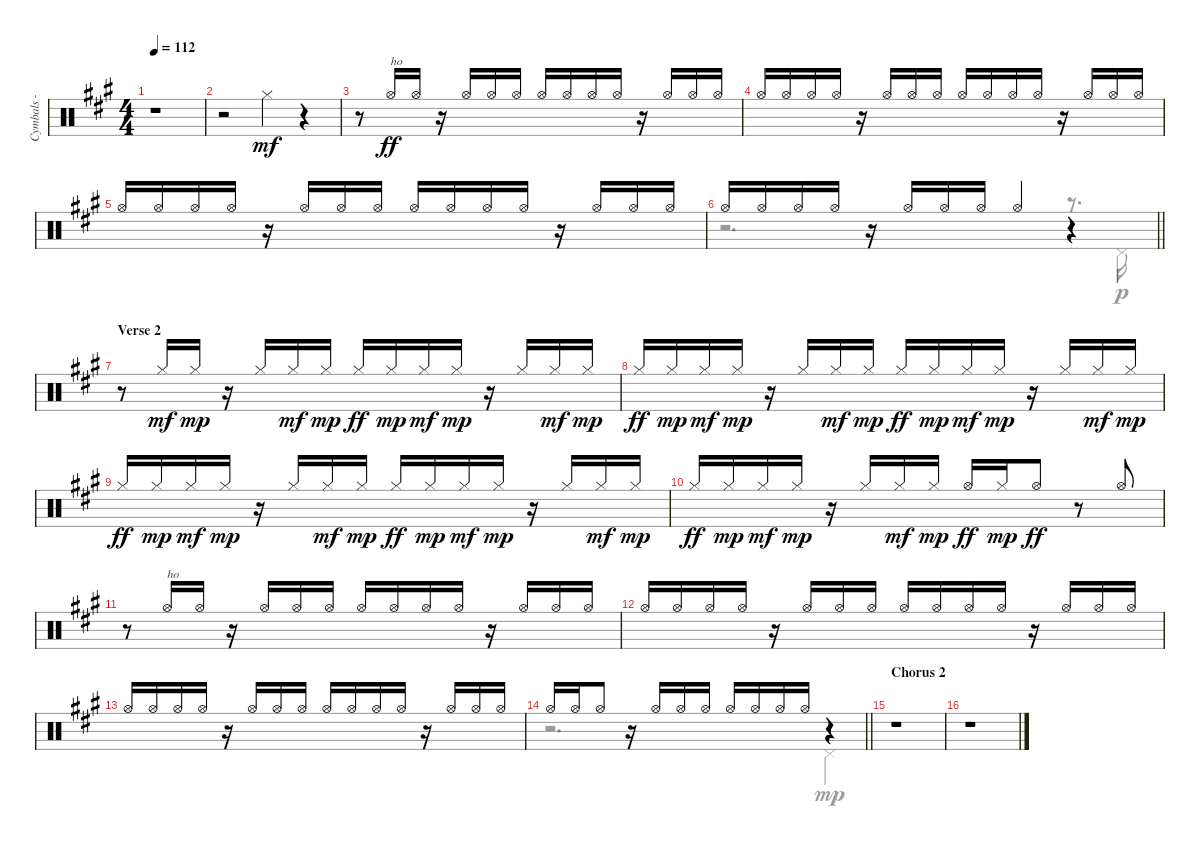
\track ("Cymbals - hi-hat" "Cymbals - ") {instrument percussion}
\staff {score}
\articulation defaults
\voice
\ts (4 4)
\tempo 112
\clef neutral
\ks f#minor
r.1{dy f} |
r.2 "Hi-Hat (closed)".4{dy mf} r.4 |
r.8{volume 4} "Hi-Hat (open)".16{txt "ho" dy ff beam Up} "Hi-Hat (open)".16{beam Up} r.16 "Hi-Hat (open)".16{beam Up} "Hi-Hat (open)".16{beam Up} "Hi-Hat (open)".16{beam Up} "Hi-Hat (open)".16{beam Up} "Hi-Hat (open)".16{beam Up} "Hi-Hat (open)".16{beam Up} "Hi-Hat (open)".16{beam Up} r.16 "Hi-Hat (open)".16{beam Up} "Hi-Hat (open)".16{beam Up} "Hi-Hat (open)".16{beam Up} |
"Hi-Hat (open)".16{beam Up} "Hi-Hat (open)".16{beam Up} "Hi-Hat (open)".16{beam Up} "Hi-Hat (open)".16{beam Up} r.16 "Hi-Hat (open)".16{beam Up} "Hi-Hat (open)".16{beam Up} "Hi-Hat (open)".16{beam Up} "Hi-Hat (open)".16{beam Up} "Hi-Hat (open)".16{beam Up} "Hi-Hat (open)".16{beam Up} "Hi-Hat (open)".16{beam Up} r.16 "Hi-Hat (open)".16{beam Up} "Hi-Hat (open)".16{beam Up} "Hi-Hat (open)".16{beam Up} |
"Hi-Hat (open)".16{beam Up} "Hi-Hat (open)".16{beam Up} "Hi-Hat (open)".16{beam Up} "Hi-Hat (open)".16{beam Up} r.16 "Hi-Hat (open)".16{beam Up} "Hi-Hat (open)".16{beam Up} "Hi-Hat (open)".16{beam Up} "Hi-Hat (open)".16{beam Up} "Hi-Hat (open)".16{beam Up} "Hi-Hat (open)".16{beam Up} "Hi-Hat (open)".16{beam Up} r.16 "Hi-Hat (open)".16{beam Up} "Hi-Hat (open)".16{beam Up} "Hi-Hat (open)".16{beam Up} |
\barLineRight lightlight "Hi-Hat (open)".16{beam Up} "Hi-Hat (open)".16{beam Up} "Hi-Hat (open)".16{beam Up} "Hi-Hat (open)".16{beam Up}
r.16 "Hi-Hat (open)".16{beam Up} "Hi-Hat (open)".16{beam Up} "Hi-Hat (open)".16{beam Up} "Hi-Hat (open)".4{beam Up} r.4 |
\section ("" "Verse 2")
r.8 "Hi-Hat (closed)".16{dy mf beam Up} "Hi-Hat (closed)".16{dy mp beam Up} r.16 "Hi-Hat (closed)".16{beam Up} "Hi-Hat (closed)".16{dy mf beam Up} "Hi-Hat (closed)".16{dy mp beam Up} "Hi-Hat (closed)".16{dy ff beam Up} "Hi-Hat (closed)".16{dy mp beam Up} "Hi-Hat (closed)".16{dy mf beam Up} "Hi-Hat (closed)".16{dy mp beam Up} r.16 "Hi-Hat (closed)".16{beam Up} "Hi-Hat (closed)".16{dy mf beam Up} "Hi-Hat (closed)".16{dy mp beam Up} |
"Hi-Hat (closed)".16{dy ff beam Up} "Hi-Hat (closed)".16{dy mp beam Up} "Hi-Hat (closed)".16{dy mf beam Up} "Hi-Hat (closed)".16{dy mp beam Up} r.16 "Hi-Hat (closed)".16{beam Up} "Hi-Hat (closed)".16{dy mf beam Up} "Hi-Hat (closed)".16{dy mp beam Up} "Hi-Hat (closed)".16{dy ff beam Up} "Hi-Hat (closed)".16{dy mp beam Up} "Hi-Hat (closed)".16{dy mf beam Up} "Hi-Hat (closed)".16{dy mp beam Up} r.16 "Hi-Hat (closed)".16{beam Up} "Hi-Hat (closed)".16{dy mf beam Up} "Hi-Hat (closed)".16{dy mp beam Up} |
"Hi-Hat (closed)".16{dy ff beam Up} "Hi-Hat (closed)".16{dy mp beam Up} "Hi-Hat (closed)".16{dy mf beam Up} "Hi-Hat (closed)".16{dy mp beam Up} r.16 "Hi-Hat (closed)".16{beam Up} "Hi-Hat (closed)".16{dy mf beam Up} "Hi-Hat (closed)".16{dy mp beam Up} "Hi-Hat (closed)".16{dy ff beam Up} "Hi-Hat (closed)".16{dy mp beam Up} "Hi-Hat (closed)".16{dy mf beam Up} "Hi-Hat (closed)".16{dy mp beam Up} r.16 "Hi-Hat (closed)".16{beam Up} "Hi-Hat (closed)".16{dy mf beam Up} "Hi-Hat (closed)".16{dy mp beam Up} |
"Hi-Hat (closed)".16{dy ff beam Up} "Hi-Hat (closed)".16{dy mp beam Up} "Hi-Hat (closed)".16{dy mf beam Up} "Hi-Hat (closed)".16{dy mp beam Up} r.16 "Hi-Hat (closed)".16{beam Up} "Hi-Hat (closed)".16{dy mf beam Up} "Hi-Hat (closed)".16{dy mp beam Up} "Hi-Hat (open)".16{dy ff beam Up} "Hi-Hat (closed)".16{dy mp beam Up} "Hi-Hat (open)".8{dy ff beam Up} r.8{beam Up} "Hi-Hat (open)".8{beam Up} |
r.8 "Hi-Hat (open)".16{txt "ho" beam Up} "Hi-Hat (open)".16{beam Up} r.16 "Hi-Hat (open)".16{beam Up} "Hi-Hat (open)".16{beam Up} "Hi-Hat (open)".16{beam Up} "Hi-Hat (open)".16{beam Up} "Hi-Hat (open)".16{beam Up} "Hi-Hat (open)".16{beam Up} "Hi-Hat (open)".16{beam Up} r.16 "Hi-Hat (open)".16{beam Up} "Hi-Hat (open)".16{beam Up} "Hi-Hat (open)".16{beam Up} |
"Hi-Hat (open)".16{beam Up} "Hi-Hat (open)".16{beam Up} "Hi-Hat (open)".16{beam Up} "Hi-Hat (open)".16{beam Up} r.16 "Hi-Hat (open)".16{beam Up} "Hi-Hat (open)".16{beam Up} "Hi-Hat (open)".16{beam Up} "Hi-Hat (open)".16{beam Up} "Hi-Hat (open)".16{beam Up} "Hi-Hat (open)".16{beam Up} "Hi-Hat (open)".16{beam Up} r.16 "Hi-Hat (open)".16{beam Up} "Hi-Hat (open)".16{beam Up} "Hi-Hat (open)".16{beam Up} |
"Hi-Hat (open)".16{beam Up} "Hi-Hat (open)".16{beam Up} "Hi-Hat (open)".16{beam Up} "Hi-Hat (open)".16{beam Up} r.16 "Hi-Hat (open)".16{beam Up} "Hi-Hat (open)".16{beam Up} "Hi-Hat (open)".16{beam Up} "Hi-Hat (open)".16{beam Up} "Hi-Hat (open)".16{beam Up} "Hi-Hat (open)".16{beam Up} "Hi-Hat (open)".16{beam Up} r.16 "Hi-Hat (open)".16{beam Up} "Hi-Hat (open)".16{beam Up} "Hi-Hat (open)".16{beam Up} |
\barLineRight lightlight "Hi-Hat (open)".16{beam Up} "Hi-Hat (open)".16{beam Up} "Hi-Hat (open)".8{beam Up}
r.16{beam Up} "Hi-Hat (open)".16{beam Up} "Hi-Hat (open)".16{beam Up} "Hi-Hat (open)".16{beam Up} "Hi-Hat (open)".16{beam Up} "Hi-Hat (open)".16{beam Up} "Hi-Hat (open)".16{beam Up} "Hi-Hat (open)".16{beam Up} r.4 |
\section ("" "Chorus 2")
r.1 |
r.1
\voice
\clef neutral
\ottava regular
\simile none
\ks f#minor
|
|
|
|
|
\barLineRight lightlight
r.2{d} r.8{d} "Pedal Hi-Hat (hit)".16{dy p beam Down} |
|
|
|
|
|
|
|
\barLineRight lightlight
r.2{d} "Pedal Hi-Hat (hit)".4{dy mp} |
|
